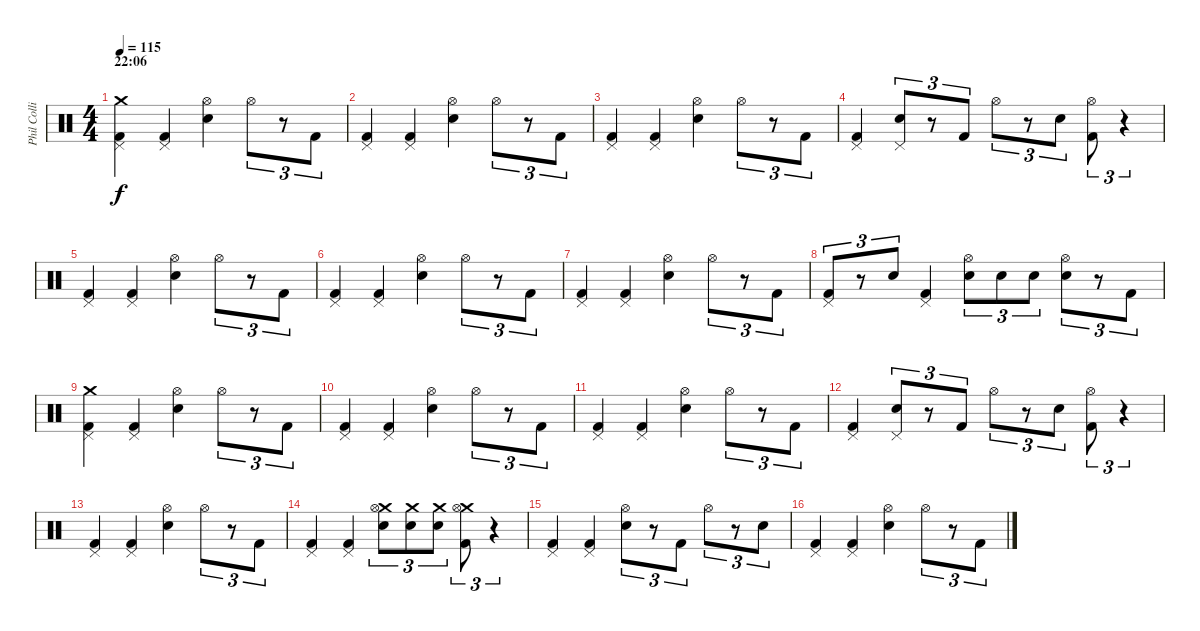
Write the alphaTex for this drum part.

\track ("Phil Collins (drums)" "Phil Colli") {instrument percussion}
\staff {score}
\articulation defaults
\ts (4 4)
\section ("" "22:06")
\tempo 115
\clef neutral
\ks c
("Crash medium (hit)" "Pedal Hi-Hat (hit)" "Kick (hit) 2").4{dy f} ("Pedal Hi-Hat (hit)" "Kick (hit) 2").4 ("Hi-Hat (open)" "Electric Snare (hit)").4 "Hi-Hat (open)".8{tu (3 2)} r.8{tu (3 2)} "Kick (hit) 2".8{tu (3 2)} |
("Pedal Hi-Hat (hit)" "Kick (hit) 2").4 ("Pedal Hi-Hat (hit)" "Kick (hit) 2").4 ("Hi-Hat (open)" "Electric Snare (hit)").4 "Hi-Hat (open)".8{tu (3 2)} r.8{tu (3 2)} "Kick (hit) 2".8{tu (3 2)} |
("Pedal Hi-Hat (hit)" "Kick (hit) 2").4 ("Pedal Hi-Hat (hit)" "Kick (hit) 2").4 ("Hi-Hat (open)" "Electric Snare (hit)").4 "Hi-Hat (open)".8{tu (3 2)} r.8{tu (3 2)} "Kick (hit) 2".8{tu (3 2)} |
("Pedal Hi-Hat (hit)" "Kick (hit) 2").4 ("Pedal Hi-Hat (hit)" "Electric Snare (hit)").8{tu (3 2)} r.8{tu (3 2)} "Kick (hit) 2".8{tu (3 2)} "Hi-Hat (open)".8{tu (3 2)} r.8{tu (3 2)} "Electric Snare (hit)".8{tu (3 2)} ("Hi-Hat (open)" "Kick (hit) 2").8{tu (3 2)} r.4{tu (3 2)} |
("Pedal Hi-Hat (hit)" "Kick (hit) 2").4 ("Pedal Hi-Hat (hit)" "Kick (hit) 2").4 ("Hi-Hat (open)" "Electric Snare (hit)").4 "Hi-Hat (open)".8{tu (3 2)} r.8{tu (3 2)} "Kick (hit) 2".8{tu (3 2)} |
("Pedal Hi-Hat (hit)" "Kick (hit) 2").4 ("Pedal Hi-Hat (hit)" "Kick (hit) 2").4 ("Hi-Hat (open)" "Electric Snare (hit)").4 "Hi-Hat (open)".8{tu (3 2)} r.8{tu (3 2)} "Kick (hit) 2".8{tu (3 2)} |
("Pedal Hi-Hat (hit)" "Kick (hit) 2").4 ("Pedal Hi-Hat (hit)" "Kick (hit) 2").4 ("Hi-Hat (open)" "Electric Snare (hit)").4 "Hi-Hat (open)".8{tu (3 2)} r.8{tu (3 2)} "Kick (hit) 2".8{tu (3 2)} |
("Pedal Hi-Hat (hit)" "Kick (hit) 2").8{tu (3 2)} r.8{tu (3 2)} "Electric Snare (hit)".8{tu (3 2)} ("Pedal Hi-Hat (hit)" "Kick (hit) 2").4 ("Hi-Hat (open)" "Electric Snare (hit)").8{tu (3 2)} "Electric Snare (hit)".8{tu (3 2)} "Electric Snare (hit)".8{tu (3 2)} ("Hi-Hat (open)" "Electric Snare (hit)").8{tu (3 2)} r.8{tu (3 2)} "Kick (hit) 2".8{tu (3 2)} |
("Crash medium (hit)" "Pedal Hi-Hat (hit)" "Kick (hit) 2").4 ("Pedal Hi-Hat (hit)" "Kick (hit) 2").4 ("Hi-Hat (open)" "Electric Snare (hit)").4 "Hi-Hat (open)".8{tu (3 2)} r.8{tu (3 2)} "Kick (hit) 2".8{tu (3 2)} |
("Pedal Hi-Hat (hit)" "Kick (hit) 2").4 ("Pedal Hi-Hat (hit)" "Kick (hit) 2").4 ("Hi-Hat (open)" "Electric Snare (hit)").4 "Hi-Hat (open)".8{tu (3 2)} r.8{tu (3 2)} "Kick (hit) 2".8{tu (3 2)} |
("Pedal Hi-Hat (hit)" "Kick (hit) 2").4 ("Pedal Hi-Hat (hit)" "Kick (hit) 2").4 ("Hi-Hat (open)" "Electric Snare (hit)").4 "Hi-Hat (open)".8{tu (3 2)} r.8{tu (3 2)} "Kick (hit) 2".8{tu (3 2)} |
("Pedal Hi-Hat (hit)" "Kick (hit) 2").4 ("Pedal Hi-Hat (hit)" "Electric Snare (hit)").8{tu (3 2)} r.8{tu (3 2)} "Kick (hit) 2".8{tu (3 2)} "Hi-Hat (open)".8{tu (3 2)} r.8{tu (3 2)} "Electric Snare (hit)".8{tu (3 2)} ("Hi-Hat (open)" "Kick (hit) 2").8{tu (3 2)} r.4{tu (3 2)} |
("Pedal Hi-Hat (hit)" "Kick (hit) 2").4 ("Pedal Hi-Hat (hit)" "Kick (hit) 2").4 ("Hi-Hat (open)" "Electric Snare (hit)").4 "Hi-Hat (open)".8{tu (3 2)} r.8{tu (3 2)} "Kick (hit) 2".8{tu (3 2)} |
("Pedal Hi-Hat (hit)" "Kick (hit) 2").4 ("Pedal Hi-Hat (hit)" "Kick (hit) 2").4 ("Crash medium (hit)" "Hi-Hat (open)" "Electric Snare (hit)").8{tu (3 2)} ("Crash medium (hit)" "Electric Snare (hit)").8{tu (3 2)} ("Crash medium (hit)" "Electric Snare (hit)").8{tu (3 2)} ("Crash medium (hit)" "Hi-Hat (open)" "Kick (hit) 2").8{tu (3 2)} r.4{tu (3 2)} |
("Pedal Hi-Hat (hit)" "Kick (hit) 2").4 ("Pedal Hi-Hat (hit)" "Kick (hit) 2").4 ("Hi-Hat (open)" "Electric Snare (hit)").8{tu (3 2)} r.8{tu (3 2)} "Kick (hit) 2".8{tu (3 2)} "Hi-Hat (open)".8{tu (3 2)} r.8{tu (3 2)} "Electric Snare (hit)".8{tu (3 2)} |
("Pedal Hi-Hat (hit)" "Kick (hit) 2").4{volume 9} ("Pedal Hi-Hat (hit)" "Kick (hit) 2").4 ("Hi-Hat (open)" "Electric Snare (hit)").4{volume 8} "Hi-Hat (open)".8{tu (3 2)} r.8{tu (3 2)} "Kick (hit) 2".8{tu (3 2)}
